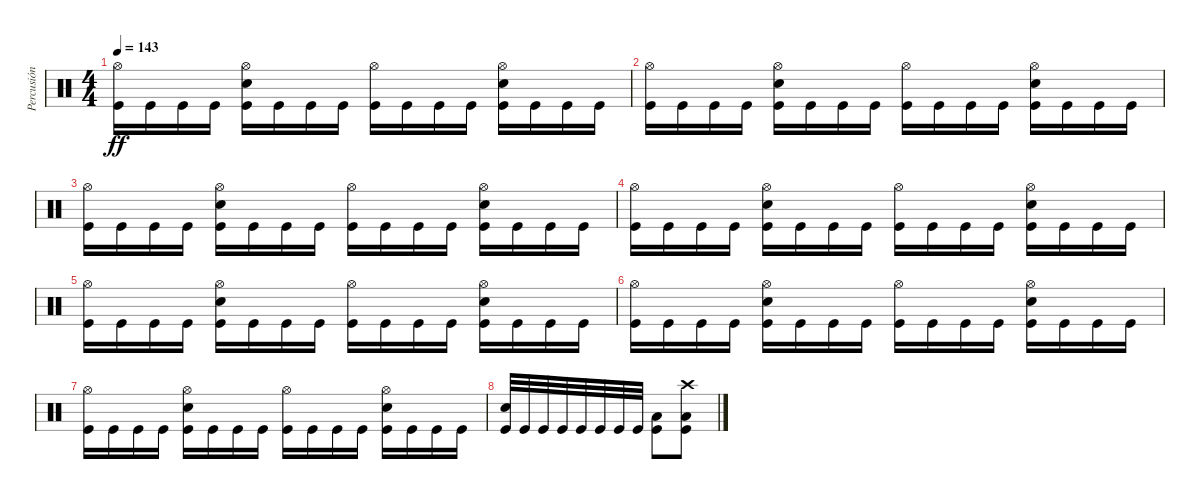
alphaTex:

\track ("Percusión" "Percusión") {instrument percussion}
\staff {score}
\articulation defaults
\ts (4 4)
\tempo 143
\clef neutral
\ks c
("Hi-Hat (open)" "Kick (hit)").16{dy ff} "Kick (hit)".16 "Kick (hit)".16 "Kick (hit)".16 ("Hi-Hat (open)" "Snare (hit) 2" "Kick (hit)").16 "Kick (hit)".16 "Kick (hit)".16 "Kick (hit)".16 ("Hi-Hat (open)" "Kick (hit)").16 "Kick (hit)".16 "Kick (hit)".16 "Kick (hit)".16 ("Hi-Hat (open)" "Snare (hit) 2" "Kick (hit)").16 "Kick (hit)".16 "Kick (hit)".16 "Kick (hit)".16 |
("Hi-Hat (open)" "Kick (hit)").16 "Kick (hit)".16 "Kick (hit)".16 "Kick (hit)".16 ("Hi-Hat (open)" "Snare (hit) 2" "Kick (hit)").16 "Kick (hit)".16 "Kick (hit)".16 "Kick (hit)".16 ("Hi-Hat (open)" "Kick (hit)").16 "Kick (hit)".16 "Kick (hit)".16 "Kick (hit)".16 ("Hi-Hat (open)" "Snare (hit) 2" "Kick (hit)").16 "Kick (hit)".16 "Kick (hit)".16 "Kick (hit)".16 |
("Hi-Hat (open)" "Kick (hit)").16 "Kick (hit)".16 "Kick (hit)".16 "Kick (hit)".16 ("Hi-Hat (open)" "Snare (hit) 2" "Kick (hit)").16 "Kick (hit)".16 "Kick (hit)".16 "Kick (hit)".16 ("Hi-Hat (open)" "Kick (hit)").16 "Kick (hit)".16 "Kick (hit)".16 "Kick (hit)".16 ("Hi-Hat (open)" "Snare (hit) 2" "Kick (hit)").16 "Kick (hit)".16 "Kick (hit)".16 "Kick (hit)".16 |
("Hi-Hat (open)" "Kick (hit)").16 "Kick (hit)".16 "Kick (hit)".16 "Kick (hit)".16 ("Hi-Hat (open)" "Snare (hit) 2" "Kick (hit)").16 "Kick (hit)".16 "Kick (hit)".16 "Kick (hit)".16 ("Hi-Hat (open)" "Kick (hit)").16 "Kick (hit)".16 "Kick (hit)".16 "Kick (hit)".16 ("Hi-Hat (open)" "Snare (hit) 2" "Kick (hit)").16 "Kick (hit)".16 "Kick (hit)".16 "Kick (hit)".16 |
("Hi-Hat (open)" "Kick (hit)").16 "Kick (hit)".16 "Kick (hit)".16 "Kick (hit)".16 ("Hi-Hat (open)" "Snare (hit) 2" "Kick (hit)").16 "Kick (hit)".16 "Kick (hit)".16 "Kick (hit)".16 ("Hi-Hat (open)" "Kick (hit)").16 "Kick (hit)".16 "Kick (hit)".16 "Kick (hit)".16 ("Hi-Hat (open)" "Snare (hit) 2" "Kick (hit)").16 "Kick (hit)".16 "Kick (hit)".16 "Kick (hit)".16 |
("Hi-Hat (open)" "Kick (hit)").16 "Kick (hit)".16 "Kick (hit)".16 "Kick (hit)".16 ("Hi-Hat (open)" "Snare (hit) 2" "Kick (hit)").16 "Kick (hit)".16 "Kick (hit)".16 "Kick (hit)".16 ("Hi-Hat (open)" "Kick (hit)").16 "Kick (hit)".16 "Kick (hit)".16 "Kick (hit)".16 ("Hi-Hat (open)" "Snare (hit) 2" "Kick (hit)").16 "Kick (hit)".16 "Kick (hit)".16 "Kick (hit)".16 |
("Hi-Hat (open)" "Kick (hit)").16 "Kick (hit)".16 "Kick (hit)".16 "Kick (hit)".16 ("Hi-Hat (open)" "Snare (hit) 2" "Kick (hit)").16 "Kick (hit)".16 "Kick (hit)".16 "Kick (hit)".16 ("Hi-Hat (open)" "Kick (hit)").16 "Kick (hit)".16 "Kick (hit)".16 "Kick (hit)".16 ("Hi-Hat (open)" "Snare (hit) 2" "Kick (hit)").16 "Kick (hit)".16 "Kick (hit)".16 "Kick (hit)".16 |
("Snare (hit) 2" "Kick (hit)").32 "Kick (hit)".32 "Kick (hit)".32 "Kick (hit)".32 "Kick (hit)".32 "Kick (hit)".32 "Kick (hit)".32 "Kick (hit)".32 ("Low Floor Tom (hit)" "Kick (hit)").8 ("Crash high (hit)" "Low Floor Tom (hit)" "Kick (hit)").8
